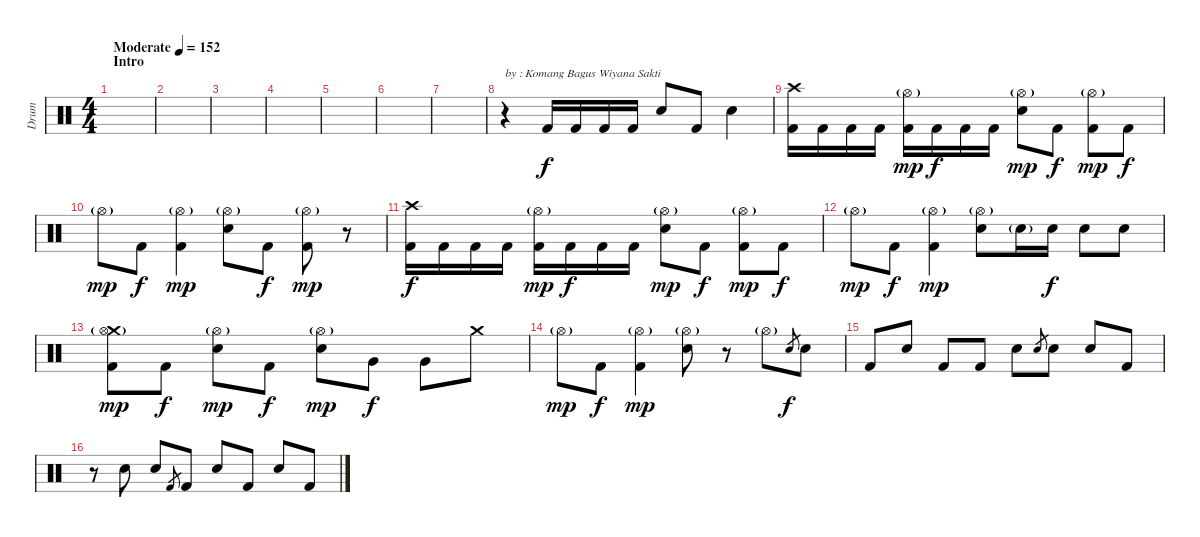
\track ("Drum" "Drum") {instrument percussion}
\staff {score}
\articulation defaults
\ts (4 4)
\section ("" "Intro")
\tempo (152 "Moderate")
\clef neutral
\ks c
|
|
|
|
|
|
|
r.4{txt "by : Komang Bagus Wiyana Sakti"} "Kick (hit) 2".16 "Kick (hit) 2".16 "Kick (hit) 2".16 "Kick (hit) 2".16 "Electric Snare (hit)".8 "Kick (hit) 2".8 "Electric Snare (hit)".4 |
("Crash high (hit)" "Kick (hit) 2").16 "Kick (hit) 2".16 "Kick (hit) 2".16 "Kick (hit) 2".16 ("Hi-Hat (open)"{g} "Kick (hit) 2").16{dy mp} "Kick (hit) 2".16{dy f} "Kick (hit) 2".16 "Kick (hit) 2".16 ("Hi-Hat (open)"{g} "Electric Snare (hit)").8{dy mp} "Kick (hit) 2".8{dy f} ("Hi-Hat (open)"{g} "Kick (hit) 2").8{dy mp} "Kick (hit) 2".8{dy f} |
"Hi-Hat (open)"{g}.8{dy mp} "Kick (hit) 2".8{dy f} ("Hi-Hat (open)"{g} "Kick (hit) 2").4{dy mp} ("Hi-Hat (open)"{g} "Electric Snare (hit)").8 "Kick (hit) 2".8{dy f} ("Hi-Hat (open)"{g} "Kick (hit) 2").8{dy mp} r.8 |
("Crash high (hit)" "Kick (hit) 2").16{dy f} "Kick (hit) 2".16 "Kick (hit) 2".16 "Kick (hit) 2".16 ("Hi-Hat (open)"{g} "Kick (hit) 2").16{dy mp} "Kick (hit) 2".16{dy f} "Kick (hit) 2".16 "Kick (hit) 2".16 ("Hi-Hat (open)"{g} "Electric Snare (hit)").8{dy mp} "Kick (hit) 2".8{dy f} ("Hi-Hat (open)"{g} "Kick (hit) 2").8{dy mp} "Kick (hit) 2".8{dy f} |
"Hi-Hat (open)"{g}.8{dy mp} "Kick (hit) 2".8{dy f} ("Hi-Hat (open)"{g} "Kick (hit) 2").4{dy mp} ("Hi-Hat (open)"{g} "Electric Snare (hit)").8 "Electric Snare (hit)"{g}.16 "Electric Snare (hit)".16{dy f} "Electric Snare (hit)".8 "Electric Snare (hit)".8 |
("Crash medium (hit)" "Hi-Hat (open)"{g} "Kick (hit) 2").8{dy mp} "Kick (hit) 2".8{dy f} ("Hi-Hat (open)"{g} "Electric Snare (hit)").8{dy mp} "Kick (hit) 2".8{dy f} ("Hi-Hat (open)"{g} "Electric Snare (hit)").8{dy mp} "Very Low Tom (hit)".8{dy f} "Very Low Tom (hit)".8 "Crash medium (hit)".8 |
"Hi-Hat (open)"{g}.8{dy mp} "Kick (hit) 2".8{dy f} ("Hi-Hat (open)"{g} "Kick (hit) 2").4{dy mp} ("Hi-Hat (open)"{g} "Electric Snare (hit)").8 r.8 "Hi-Hat (open)"{g}.8 "Electric Snare (hit)".8{gr dy f} "Electric Snare (hit)".8 |
"Kick (hit) 2".8 "Electric Snare (hit)".8 "Kick (hit) 2".8 "Kick (hit) 2".8 "Electric Snare (hit)".8 "Electric Snare (hit)".8{gr} "Electric Snare (hit)".8 "Electric Snare (hit)".8 "Kick (hit) 2".8 |
r.8 "Electric Snare (hit)".8 "Electric Snare (hit)".8 "Kick (hit) 2".8{gr} "Kick (hit) 2".8 "Electric Snare (hit)".8 "Kick (hit) 2".8 "Electric Snare (hit)".8 "Kick (hit) 2".8
